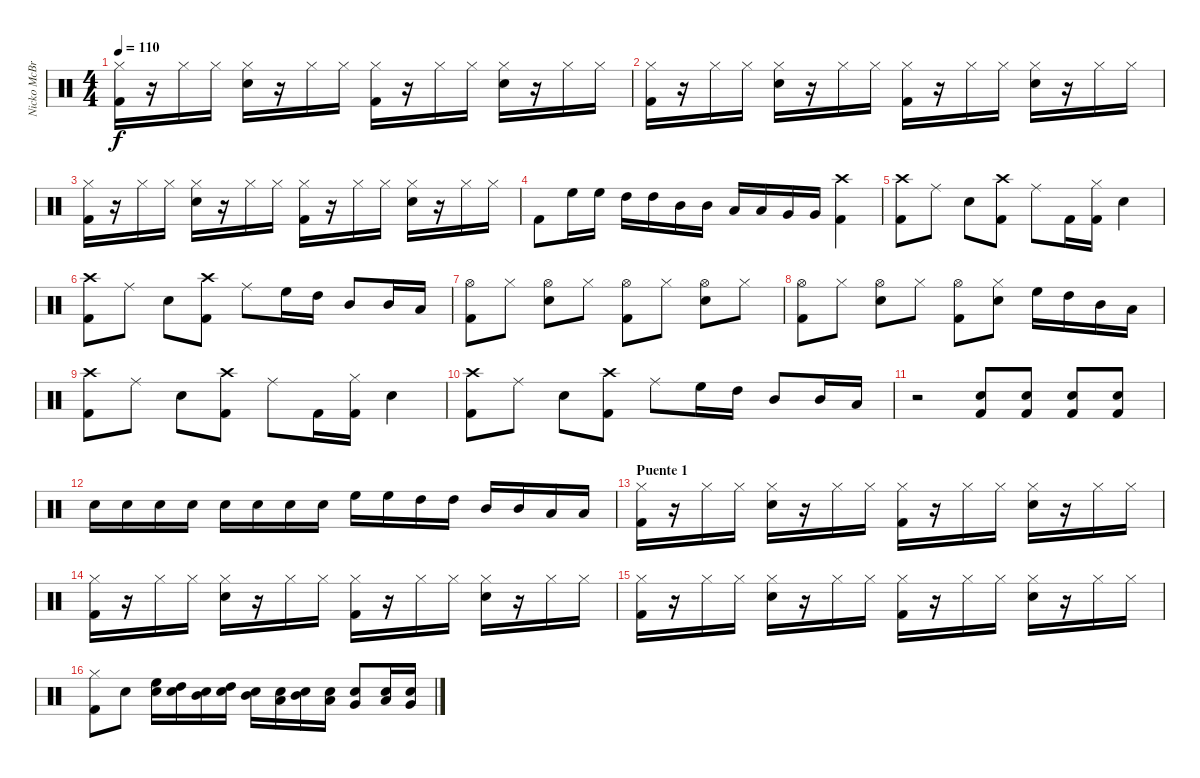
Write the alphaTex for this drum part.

\track ("Nicko McBrain" "Nicko McBr") {instrument percussion}
\staff {score}
\articulation defaults
\ts (4 4)
\tempo 110
\clef neutral
\ks c
("Hi-Hat (closed)" "Kick (hit) 2").16{dy f} r.16 "Hi-Hat (closed)".16 "Hi-Hat (closed)".16 ("Hi-Hat (closed)" "Snare (hit) 2").16 r.16 "Hi-Hat (closed)".16 "Hi-Hat (closed)".16 ("Hi-Hat (closed)" "Kick (hit) 2").16 r.16 "Hi-Hat (closed)".16 "Hi-Hat (closed)".16 ("Hi-Hat (closed)" "Snare (hit) 2").16 r.16 "Hi-Hat (closed)".16 "Hi-Hat (closed)".16 |
("Hi-Hat (closed)" "Kick (hit) 2").16 r.16 "Hi-Hat (closed)".16 "Hi-Hat (closed)".16 ("Hi-Hat (closed)" "Snare (hit) 2").16 r.16 "Hi-Hat (closed)".16 "Hi-Hat (closed)".16 ("Hi-Hat (closed)" "Kick (hit) 2").16 r.16 "Hi-Hat (closed)".16 "Hi-Hat (closed)".16 ("Hi-Hat (closed)" "Snare (hit) 2").16 r.16 "Hi-Hat (closed)".16 "Hi-Hat (closed)".16 |
("Hi-Hat (closed)" "Kick (hit) 2").16 r.16 "Hi-Hat (closed)".16 "Hi-Hat (closed)".16 ("Hi-Hat (closed)" "Snare (hit) 2").16 r.16 "Hi-Hat (closed)".16 "Hi-Hat (closed)".16 ("Hi-Hat (closed)" "Kick (hit) 2").16 r.16 "Hi-Hat (closed)".16 "Hi-Hat (closed)".16 ("Hi-Hat (closed)" "Snare (hit) 2").16 r.16 "Hi-Hat (closed)".16 "Hi-Hat (closed)".16 |
"Kick (hit) 2".8 "High Floor Tom (hit)".16 "High Floor Tom (hit)".16 "High Tom (hit)".16 "High Tom (hit)".16 "Mid Tom (hit)".16 "Mid Tom (hit)".16 "Low Tom (hit)".16 "Low Tom (hit)".16 "Very Low Tom (hit)".16 "Very Low Tom (hit)".16 ("Crash high (hit)" "Kick (hit) 2").4 |
("Crash high (hit)" "Kick (hit) 2").8 "Ride (middle)".8 "Snare (hit) 2".8 ("Crash high (hit)" "Kick (hit) 2").8 "Ride (middle)".8 "Kick (hit) 2".16 ("Hi-Hat (closed)" "Kick (hit) 2").16 "Snare (hit) 2".4 |
("Crash high (hit)" "Kick (hit) 2").8 "Ride (middle)".8 "Snare (hit) 2".8 ("Crash high (hit)" "Kick (hit) 2").8 "Ride (middle)".8 "High Floor Tom (hit)".16 "High Tom (hit)".16 "Mid Tom (hit)".8 "Mid Tom (hit)".16 "Low Tom (hit)".16 |
("Hi-Hat (open)" "Kick (hit) 2").8 "Hi-Hat (closed)".8 ("Hi-Hat (open)" "Snare (hit) 2").8 "Hi-Hat (closed)".8 ("Hi-Hat (open)" "Kick (hit) 2").8 "Hi-Hat (closed)".8 ("Hi-Hat (open)" "Snare (hit) 2").8 "Hi-Hat (closed)".8 |
("Hi-Hat (open)" "Kick (hit) 2").8 "Hi-Hat (closed)".8 ("Hi-Hat (open)" "Snare (hit) 2").8 "Hi-Hat (closed)".8 ("Hi-Hat (open)" "Kick (hit) 2").8 ("Hi-Hat (closed)" "Snare (hit) 2").8 "High Floor Tom (hit)".16 "High Tom (hit)".16 "Mid Tom (hit)".16 "Low Tom (hit)".16 |
("Crash high (hit)" "Kick (hit) 2").8 "Ride (middle)".8 "Snare (hit) 2".8 ("Crash high (hit)" "Kick (hit) 2").8 "Ride (middle)".8 "Kick (hit) 2".16 ("Hi-Hat (closed)" "Kick (hit) 2").16 "Snare (hit) 2".4 |
("Crash high (hit)" "Kick (hit) 2").8 "Ride (middle)".8 "Snare (hit) 2".8 ("Crash high (hit)" "Kick (hit) 2").8 "Ride (middle)".8 "High Floor Tom (hit)".16 "High Tom (hit)".16 "Mid Tom (hit)".8 "Mid Tom (hit)".16 "Low Tom (hit)".16 |
r.2 ("Kick (hit) 2" "Snare (hit) 2").8 ("Kick (hit) 2" "Snare (hit) 2").8 ("Kick (hit) 2" "Snare (hit) 2").8 ("Kick (hit) 2" "Snare (hit) 2").8 |
"Snare (hit) 2".16 "Snare (hit) 2".16 "Snare (hit) 2".16 "Snare (hit) 2".16 "Snare (hit) 2".16 "Snare (hit) 2".16 "Snare (hit) 2".16 "Snare (hit) 2".16 "High Floor Tom (hit)".16 "High Floor Tom (hit)".16 "High Tom (hit)".16 "High Tom (hit)".16 "Mid Tom (hit)".16 "Mid Tom (hit)".16 "Low Tom (hit)".16 "Low Tom (hit)".16 |
\section ("" "Puente 1")
("Hi-Hat (closed)" "Kick (hit) 2").16 r.16 "Hi-Hat (closed)".16 "Hi-Hat (closed)".16 ("Hi-Hat (closed)" "Snare (hit) 2").16 r.16 "Hi-Hat (closed)".16 "Hi-Hat (closed)".16 ("Hi-Hat (closed)" "Kick (hit) 2").16 r.16 "Hi-Hat (closed)".16 "Hi-Hat (closed)".16 ("Hi-Hat (closed)" "Snare (hit) 2").16 r.16 "Hi-Hat (closed)".16 "Hi-Hat (closed)".16 |
("Hi-Hat (closed)" "Kick (hit) 2").16 r.16 "Hi-Hat (closed)".16 "Hi-Hat (closed)".16 ("Hi-Hat (closed)" "Snare (hit) 2").16 r.16 "Hi-Hat (closed)".16 "Hi-Hat (closed)".16 ("Hi-Hat (closed)" "Kick (hit) 2").16 r.16 "Hi-Hat (closed)".16 "Hi-Hat (closed)".16 ("Hi-Hat (closed)" "Snare (hit) 2").16 r.16 "Hi-Hat (closed)".16 "Hi-Hat (closed)".16 |
("Hi-Hat (closed)" "Kick (hit) 2").16 r.16 "Hi-Hat (closed)".16 "Hi-Hat (closed)".16 ("Hi-Hat (closed)" "Snare (hit) 2").16 r.16 "Hi-Hat (closed)".16 "Hi-Hat (closed)".16 ("Hi-Hat (closed)" "Kick (hit) 2").16 r.16 "Hi-Hat (closed)".16 "Hi-Hat (closed)".16 ("Hi-Hat (closed)" "Snare (hit) 2").16 r.16 "Hi-Hat (closed)".16 "Hi-Hat (closed)".16 |
("Hi-Hat (closed)" "Kick (hit) 2").8 "Snare (hit) 2".8 ("Snare (hit) 2" "High Floor Tom (hit)").16 ("Snare (hit) 2" "High Tom (hit)").16 ("Snare (hit) 2" "Mid Tom (hit)").16 ("Snare (hit) 2" "High Tom (hit)").16 ("Snare (hit) 2" "Mid Tom (hit)").16 ("Snare (hit) 2" "Low Tom (hit)").16 ("Snare (hit) 2" "Mid Tom (hit)").16 ("Snare (hit) 2" "Low Tom (hit)").16 ("Snare (hit) 2" "Very Low Tom (hit)").8 ("Snare (hit) 2" "Low Tom (hit)").16 ("Snare (hit) 2" "Very Low Tom (hit)").16
